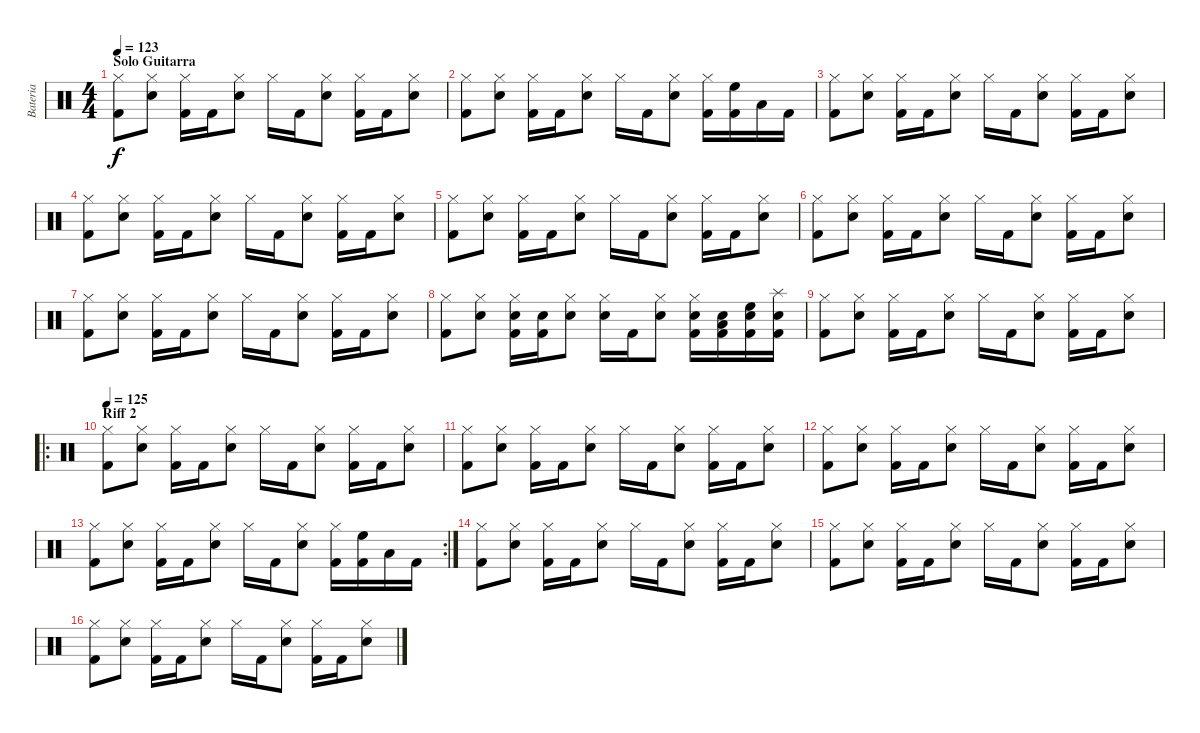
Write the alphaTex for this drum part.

\track ("Bateria" "Bateria") {instrument percussion}
\staff {score}
\articulation defaults
\ts (4 4)
\section ("" "Solo Guitarra")
\tempo 123
\clef neutral
\ks c
("Hi-Hat (closed)" "Kick (hit) 2").8{dy f} ("Hi-Hat (closed)" "Snare (hit) 2").8 ("Hi-Hat (closed)" "Kick (hit) 2").16 "Kick (hit) 2".16 ("Hi-Hat (closed)" "Snare (hit) 2").8 "Hi-Hat (closed)".16 "Kick (hit) 2".16 ("Hi-Hat (closed)" "Snare (hit) 2").8 ("Hi-Hat (closed)" "Kick (hit) 2").16 "Kick (hit) 2".16 ("Hi-Hat (closed)" "Snare (hit) 2").8 |
("Hi-Hat (closed)" "Kick (hit) 2").8 ("Hi-Hat (closed)" "Snare (hit) 2").8 ("Hi-Hat (closed)" "Kick (hit) 2").16 "Kick (hit) 2".16 ("Hi-Hat (closed)" "Snare (hit) 2").8 "Hi-Hat (closed)".16 "Kick (hit) 2".16 ("Hi-Hat (closed)" "Snare (hit) 2").8 ("Hi-Hat (closed)" "Kick (hit) 2").16 ("High Floor Tom (hit)" "Kick (hit) 2").16 "Low Tom (hit)".16 "Kick (hit) 2".16 |
("Hi-Hat (closed)" "Kick (hit) 2").8 ("Hi-Hat (closed)" "Snare (hit) 2").8 ("Hi-Hat (closed)" "Kick (hit) 2").16 "Kick (hit) 2".16 ("Hi-Hat (closed)" "Snare (hit) 2").8 "Hi-Hat (closed)".16 "Kick (hit) 2".16 ("Hi-Hat (closed)" "Snare (hit) 2").8 ("Hi-Hat (closed)" "Kick (hit) 2").16 "Kick (hit) 2".16 ("Hi-Hat (closed)" "Snare (hit) 2").8 |
("Hi-Hat (closed)" "Kick (hit) 2").8 ("Hi-Hat (closed)" "Snare (hit) 2").8 ("Hi-Hat (closed)" "Kick (hit) 2").16 "Kick (hit) 2".16 ("Hi-Hat (closed)" "Snare (hit) 2").8 "Hi-Hat (closed)".16 "Kick (hit) 2".16 ("Hi-Hat (closed)" "Snare (hit) 2").8 ("Hi-Hat (closed)" "Kick (hit) 2").16 "Kick (hit) 2".16 ("Hi-Hat (closed)" "Snare (hit) 2").8 |
("Hi-Hat (closed)" "Kick (hit) 2").8 ("Hi-Hat (closed)" "Snare (hit) 2").8 ("Hi-Hat (closed)" "Kick (hit) 2").16 "Kick (hit) 2".16 ("Hi-Hat (closed)" "Snare (hit) 2").8 "Hi-Hat (closed)".16 "Kick (hit) 2".16 ("Hi-Hat (closed)" "Snare (hit) 2").8 ("Hi-Hat (closed)" "Kick (hit) 2").16 "Kick (hit) 2".16 ("Hi-Hat (closed)" "Snare (hit) 2").8 |
("Hi-Hat (closed)" "Kick (hit) 2").8 ("Hi-Hat (closed)" "Snare (hit) 2").8 ("Hi-Hat (closed)" "Kick (hit) 2").16 "Kick (hit) 2".16 ("Hi-Hat (closed)" "Snare (hit) 2").8 "Hi-Hat (closed)".16 "Kick (hit) 2".16 ("Hi-Hat (closed)" "Snare (hit) 2").8 ("Hi-Hat (closed)" "Kick (hit) 2").16 "Kick (hit) 2".16 ("Hi-Hat (closed)" "Snare (hit) 2").8 |
("Hi-Hat (closed)" "Kick (hit) 2").8 ("Hi-Hat (closed)" "Snare (hit) 2").8 ("Hi-Hat (closed)" "Kick (hit) 2").16 "Kick (hit) 2".16 ("Hi-Hat (closed)" "Snare (hit) 2").8 "Hi-Hat (closed)".16 "Kick (hit) 2".16 ("Hi-Hat (closed)" "Snare (hit) 2").8 ("Hi-Hat (closed)" "Kick (hit) 2").16 "Kick (hit) 2".16 ("Hi-Hat (closed)" "Snare (hit) 2").8 |
("Hi-Hat (closed)" "Kick (hit) 2").8 ("Hi-Hat (closed)" "Snare (hit) 2").8 ("Hi-Hat (closed)" "Snare (hit) 2" "Kick (hit) 2").16 ("Snare (hit) 2" "Kick (hit) 2").16 ("Hi-Hat (closed)" "Snare (hit) 2").8 ("Hi-Hat (closed)" "Snare (hit) 2").16 "Kick (hit) 2".16 ("Hi-Hat (closed)" "Snare (hit) 2").8 ("Hi-Hat (closed)" "Snare (hit) 2" "Kick (hit) 2").16 ("Low Tom (hit)" "Snare (hit) 2" "Kick (hit) 2").16 ("High Floor Tom (hit)" "Snare (hit) 2" "Kick (hit) 2").16 ("Splash (hit)" "Snare (hit) 2" "Kick (hit) 2").16 |
("Hi-Hat (closed)" "Kick (hit) 2").8 ("Hi-Hat (closed)" "Snare (hit) 2").8 ("Hi-Hat (closed)" "Kick (hit) 2").16 "Kick (hit) 2".16 ("Hi-Hat (closed)" "Snare (hit) 2").8 "Hi-Hat (closed)".16 "Kick (hit) 2".16 ("Hi-Hat (closed)" "Snare (hit) 2").8 ("Hi-Hat (closed)" "Kick (hit) 2").16 "Kick (hit) 2".16 ("Hi-Hat (closed)" "Snare (hit) 2").8 |
\ro
\section ("" "Riff 2")
\tempo 125
("Hi-Hat (closed)" "Kick (hit) 2").8 ("Hi-Hat (closed)" "Snare (hit) 2").8 ("Hi-Hat (closed)" "Kick (hit) 2").16 "Kick (hit) 2".16 ("Hi-Hat (closed)" "Snare (hit) 2").8 "Hi-Hat (closed)".16 "Kick (hit) 2".16 ("Hi-Hat (closed)" "Snare (hit) 2").8 ("Hi-Hat (closed)" "Kick (hit) 2").16 "Kick (hit) 2".16 ("Hi-Hat (closed)" "Snare (hit) 2").8 |
("Hi-Hat (closed)" "Kick (hit) 2").8 ("Hi-Hat (closed)" "Snare (hit) 2").8 ("Hi-Hat (closed)" "Kick (hit) 2").16 "Kick (hit) 2".16 ("Hi-Hat (closed)" "Snare (hit) 2").8 "Hi-Hat (closed)".16 "Kick (hit) 2".16 ("Hi-Hat (closed)" "Snare (hit) 2").8 ("Hi-Hat (closed)" "Kick (hit) 2").16 "Kick (hit) 2".16 ("Hi-Hat (closed)" "Snare (hit) 2").8 |
("Hi-Hat (closed)" "Kick (hit) 2").8 ("Hi-Hat (closed)" "Snare (hit) 2").8 ("Hi-Hat (closed)" "Kick (hit) 2").16 "Kick (hit) 2".16 ("Hi-Hat (closed)" "Snare (hit) 2").8 "Hi-Hat (closed)".16 "Kick (hit) 2".16 ("Hi-Hat (closed)" "Snare (hit) 2").8 ("Hi-Hat (closed)" "Kick (hit) 2").16 "Kick (hit) 2".16 ("Hi-Hat (closed)" "Snare (hit) 2").8 |
\rc 2
("Hi-Hat (closed)" "Kick (hit) 2").8 ("Hi-Hat (closed)" "Snare (hit) 2").8 ("Hi-Hat (closed)" "Kick (hit) 2").16 "Kick (hit) 2".16 ("Hi-Hat (closed)" "Snare (hit) 2").8 "Hi-Hat (closed)".16 "Kick (hit) 2".16 ("Hi-Hat (closed)" "Snare (hit) 2").8 ("Hi-Hat (closed)" "Kick (hit) 2").16 ("High Floor Tom (hit)" "Kick (hit) 2").16 "Low Tom (hit)".16 "Kick (hit) 2".16 |
("Hi-Hat (closed)" "Kick (hit) 2").8 ("Hi-Hat (closed)" "Snare (hit) 2").8 ("Hi-Hat (closed)" "Kick (hit) 2").16 "Kick (hit) 2".16 ("Hi-Hat (closed)" "Snare (hit) 2").8 "Hi-Hat (closed)".16 "Kick (hit) 2".16 ("Hi-Hat (closed)" "Snare (hit) 2").8 ("Hi-Hat (closed)" "Kick (hit) 2").16 "Kick (hit) 2".16 ("Hi-Hat (closed)" "Snare (hit) 2").8 |
("Hi-Hat (closed)" "Kick (hit) 2").8 ("Hi-Hat (closed)" "Snare (hit) 2").8 ("Hi-Hat (closed)" "Kick (hit) 2").16 "Kick (hit) 2".16 ("Hi-Hat (closed)" "Snare (hit) 2").8 "Hi-Hat (closed)".16 "Kick (hit) 2".16 ("Hi-Hat (closed)" "Snare (hit) 2").8 ("Hi-Hat (closed)" "Kick (hit) 2").16 "Kick (hit) 2".16 ("Hi-Hat (closed)" "Snare (hit) 2").8 |
("Hi-Hat (closed)" "Kick (hit) 2").8 ("Hi-Hat (closed)" "Snare (hit) 2").8 ("Hi-Hat (closed)" "Kick (hit) 2").16 "Kick (hit) 2".16 ("Hi-Hat (closed)" "Snare (hit) 2").8 "Hi-Hat (closed)".16 "Kick (hit) 2".16 ("Hi-Hat (closed)" "Snare (hit) 2").8 ("Hi-Hat (closed)" "Kick (hit) 2").16 "Kick (hit) 2".16 ("Hi-Hat (closed)" "Snare (hit) 2").8
